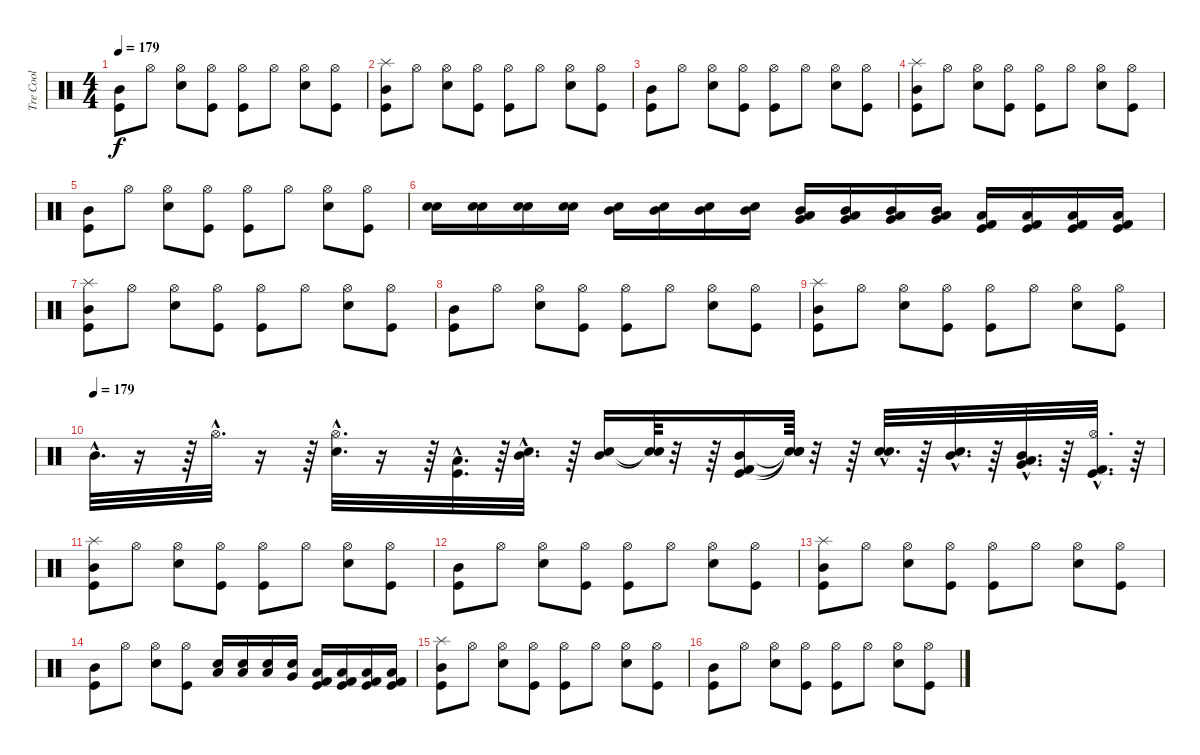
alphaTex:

\track ("Tre Cool" "Tre Cool") {instrument percussion}
\staff {score}
\articulation defaults
\ts (4 4)
\tempo 179
\clef neutral
\ks c
("Mid Tom (hit)" "Kick (hit)").8{dy f} "Hi-Hat (open)".8 ("Hi-Hat (open)" "Snare (hit) 2").8 ("Hi-Hat (open)" "Kick (hit)").8 ("Hi-Hat (open)" "Kick (hit)").8 "Hi-Hat (open)".8 ("Hi-Hat (open)" "Snare (hit) 2").8 ("Hi-Hat (open)" "Kick (hit)").8 |
("Splash (hit)" "Mid Tom (hit)" "Kick (hit)").8 "Hi-Hat (open)".8 ("Hi-Hat (open)" "Snare (hit) 2").8 ("Hi-Hat (open)" "Kick (hit)").8 ("Hi-Hat (open)" "Kick (hit)").8 "Hi-Hat (open)".8 ("Hi-Hat (open)" "Snare (hit) 2").8 ("Hi-Hat (open)" "Kick (hit)").8 |
("Mid Tom (hit)" "Kick (hit)").8 "Hi-Hat (open)".8 ("Hi-Hat (open)" "Snare (hit) 2").8 ("Hi-Hat (open)" "Kick (hit)").8 ("Hi-Hat (open)" "Kick (hit)").8 "Hi-Hat (open)".8 ("Hi-Hat (open)" "Snare (hit) 2").8 ("Hi-Hat (open)" "Kick (hit)").8 |
("Splash (hit)" "Mid Tom (hit)" "Kick (hit)").8 "Hi-Hat (open)".8 ("Hi-Hat (open)" "Snare (hit) 2").8 ("Hi-Hat (open)" "Kick (hit)").8 ("Hi-Hat (open)" "Kick (hit)").8 "Hi-Hat (open)".8 ("Hi-Hat (open)" "Snare (hit) 2").8 ("Hi-Hat (open)" "Kick (hit)").8 |
("Mid Tom (hit)" "Kick (hit)").8 "Hi-Hat (open)".8 ("Hi-Hat (open)" "Snare (hit) 2").8 ("Hi-Hat (open)" "Kick (hit)").8 ("Hi-Hat (open)" "Kick (hit)").8 "Hi-Hat (open)".8 ("Hi-Hat (open)" "Snare (hit) 2").8 ("Hi-Hat (open)" "Kick (hit)").8 |
("Electric Snare (hit)" "Snare (hit) 2").16 ("Electric Snare (hit)" "Snare (hit) 2").16 ("Electric Snare (hit)" "Snare (hit) 2").16 ("Electric Snare (hit)" "Snare (hit) 2").16 ("Snare (hit) 2" "Mid Tom (hit)").16 ("Snare (hit) 2" "Mid Tom (hit)").16 ("Snare (hit) 2" "Mid Tom (hit)").16 ("Snare (hit) 2" "Mid Tom (hit)").16 ("Mid Tom (hit)" "Very Low Tom (hit)" "Low Floor Tom (hit)").16 ("Mid Tom (hit)" "Very Low Tom (hit)" "Low Floor Tom (hit)").16 ("Mid Tom (hit)" "Very Low Tom (hit)" "Low Floor Tom (hit)").16 ("Mid Tom (hit)" "Very Low Tom (hit)" "Low Floor Tom (hit)").16 ("Kick (hit)" "Kick (hit) 2" "Low Floor Tom (hit)").16 ("Kick (hit)" "Kick (hit) 2" "Low Floor Tom (hit)").16 ("Kick (hit)" "Kick (hit) 2" "Low Floor Tom (hit)").16 ("Kick (hit)" "Kick (hit) 2" "Low Floor Tom (hit)").16 |
("Splash (hit)" "Mid Tom (hit)" "Kick (hit)").8 "Hi-Hat (open)".8 ("Hi-Hat (open)" "Snare (hit) 2").8 ("Hi-Hat (open)" "Kick (hit)").8 ("Hi-Hat (open)" "Kick (hit)").8 "Hi-Hat (open)".8 ("Hi-Hat (open)" "Snare (hit) 2").8 ("Hi-Hat (open)" "Kick (hit)").8 |
("Mid Tom (hit)" "Kick (hit)").8 "Hi-Hat (open)".8 ("Hi-Hat (open)" "Snare (hit) 2").8 ("Hi-Hat (open)" "Kick (hit)").8 ("Hi-Hat (open)" "Kick (hit)").8 "Hi-Hat (open)".8 ("Hi-Hat (open)" "Snare (hit) 2").8 ("Hi-Hat (open)" "Kick (hit)").8 |
("Splash (hit)" "Mid Tom (hit)" "Kick (hit)").8 "Hi-Hat (open)".8 ("Hi-Hat (open)" "Snare (hit) 2").8 ("Hi-Hat (open)" "Kick (hit)").8 ("Hi-Hat (open)" "Kick (hit)").8 "Hi-Hat (open)".8 ("Hi-Hat (open)" "Snare (hit) 2").8 ("Hi-Hat (open)" "Kick (hit)").8 |
\tempo (179)
"Mid Tom (hit)"{hac}.32{d} r.16 r.64 "Hi-Hat (open)"{hac}.32{d} r.16 r.64 ("Hi-Hat (open)"{hac} "Snare (hit) 2"{hac}).32{d} r.16 r.64 ("Kick (hit)"{hac} "Low Tom (hit)"{hac}).32{d} r.64 ("Snare (hit) 2"{hac} "Mid Tom (hit)"{hac}).32{d} r.64 ("Snare (hit) 2" "Mid Tom (hit)").16 ("Snare (hit)"{t} "Snare (hit)"{t}).64 r.32 r.64 ("Mid Tom (hit)" "Kick (hit)" "Kick (hit) 2").16 ("Snare (hit)"{t} "Snare (hit)"{t} "Snare (hit)"{t}).64 r.32 r.64 ("Electric Snare (hit)"{hac} "Snare (hit) 2"{hac}).32{d} r.64 ("Snare (hit) 2"{hac} "Mid Tom (hit)"{hac}).32{d} r.64 ("Low Floor Tom (hit)"{hac} "Mid Tom (hit)"{hac} "Very Low Tom (hit)"{hac}).32{d} r.64 ("Kick (hit)"{hac} "Kick (hit) 2"{hac} "Hi-Hat (open)"{hac}).32{d} r.64 |
("Splash (hit)" "Mid Tom (hit)" "Kick (hit)").8 "Hi-Hat (open)".8 ("Hi-Hat (open)" "Snare (hit) 2").8 ("Hi-Hat (open)" "Kick (hit)").8 ("Hi-Hat (open)" "Kick (hit)").8 "Hi-Hat (open)".8 ("Hi-Hat (open)" "Snare (hit) 2").8 ("Hi-Hat (open)" "Kick (hit)").8 |
("Mid Tom (hit)" "Kick (hit)").8 "Hi-Hat (open)".8 ("Hi-Hat (open)" "Snare (hit) 2").8 ("Hi-Hat (open)" "Kick (hit)").8 ("Hi-Hat (open)" "Kick (hit)").8 "Hi-Hat (open)".8 ("Hi-Hat (open)" "Snare (hit) 2").8 ("Hi-Hat (open)" "Kick (hit)").8 |
("Splash (hit)" "Mid Tom (hit)" "Kick (hit)").8 "Hi-Hat (open)".8 ("Hi-Hat (open)" "Snare (hit) 2").8 ("Hi-Hat (open)" "Kick (hit)").8 ("Hi-Hat (open)" "Kick (hit)").8 "Hi-Hat (open)".8 ("Hi-Hat (open)" "Snare (hit) 2").8 ("Hi-Hat (open)" "Kick (hit)").8 |
("Mid Tom (hit)" "Kick (hit)").8 "Hi-Hat (open)".8 ("Hi-Hat (open)" "Snare (hit) 2").8 ("Hi-Hat (open)" "Kick (hit)").8 ("Electric Snare (hit)" "Low Tom (hit)").16 ("Electric Snare (hit)" "Low Tom (hit)").16 ("Electric Snare (hit)" "Low Tom (hit)").16 ("Electric Snare (hit)" "Very Low Tom (hit)").16 ("Kick (hit)" "Kick (hit) 2" "Low Floor Tom (hit)").16 ("Kick (hit)" "Kick (hit) 2" "Low Floor Tom (hit)").16 ("Kick (hit)" "Low Floor Tom (hit)" "Kick (hit) 2").16 ("Kick (hit)" "Kick (hit) 2" "Low Floor Tom (hit)").16 |
("Splash (hit)" "Mid Tom (hit)" "Kick (hit)").8 "Hi-Hat (open)".8 ("Hi-Hat (open)" "Snare (hit) 2").8 ("Hi-Hat (open)" "Kick (hit)").8 ("Hi-Hat (open)" "Kick (hit)").8 "Hi-Hat (open)".8 ("Hi-Hat (open)" "Snare (hit) 2").8 ("Hi-Hat (open)" "Kick (hit)").8 |
("Mid Tom (hit)" "Kick (hit)").8 "Hi-Hat (open)".8 ("Hi-Hat (open)" "Snare (hit) 2").8 ("Hi-Hat (open)" "Kick (hit)").8 ("Hi-Hat (open)" "Kick (hit)").8 "Hi-Hat (open)".8 ("Hi-Hat (open)" "Snare (hit) 2").8 ("Hi-Hat (open)" "Kick (hit)").8
